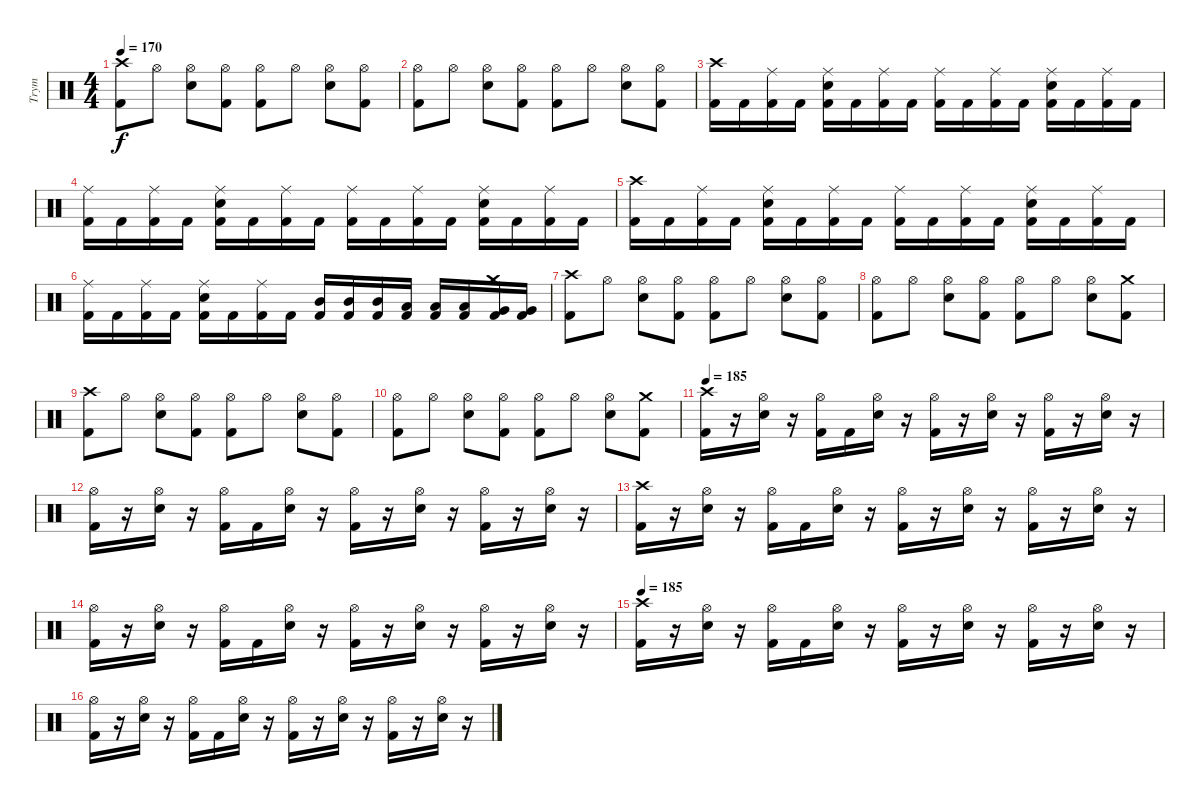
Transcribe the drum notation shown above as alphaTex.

\track ("Trym" "Trym") {instrument percussion}
\staff {score}
\articulation defaults
\ts (4 4)
\tempo 170
\clef neutral
\ks c
("Kick (hit) 2" "Crash high (hit)").8{dy f} "Hi-Hat (open)".8 ("Electric Snare (hit)" "Hi-Hat (open)").8 ("Kick (hit) 2" "Hi-Hat (open)").8 ("Kick (hit) 2" "Hi-Hat (open)").8 "Hi-Hat (open)".8 ("Electric Snare (hit)" "Hi-Hat (open)").8 ("Kick (hit) 2" "Hi-Hat (open)").8 |
("Kick (hit) 2" "Hi-Hat (open)").8 "Hi-Hat (open)".8 ("Electric Snare (hit)" "Hi-Hat (open)").8 ("Kick (hit) 2" "Hi-Hat (open)").8 ("Kick (hit) 2" "Hi-Hat (open)").8 "Hi-Hat (open)".8 ("Electric Snare (hit)" "Hi-Hat (open)").8 ("Kick (hit) 2" "Hi-Hat (open)").8 |
("Kick (hit) 2" "Crash high (hit)").16 "Kick (hit) 2".16 ("Kick (hit) 2" "Ride (middle)").16 "Kick (hit) 2".16 ("Kick (hit) 2" "Electric Snare (hit)" "Ride (middle)").16 "Kick (hit) 2".16 ("Kick (hit) 2" "Ride (middle)").16 "Kick (hit) 2".16 ("Kick (hit) 2" "Ride (middle)").16 "Kick (hit) 2".16 ("Kick (hit) 2" "Ride (middle)").16 "Kick (hit) 2".16 ("Kick (hit) 2" "Electric Snare (hit)" "Ride (middle)").16 "Kick (hit) 2".16 ("Kick (hit) 2" "Ride (middle)").16 "Kick (hit) 2".16 |
("Kick (hit) 2" "Ride (middle)").16 "Kick (hit) 2".16 ("Kick (hit) 2" "Ride (middle)").16 "Kick (hit) 2".16 ("Kick (hit) 2" "Electric Snare (hit)" "Ride (middle)").16 "Kick (hit) 2".16 ("Kick (hit) 2" "Ride (middle)").16 "Kick (hit) 2".16 ("Kick (hit) 2" "Ride (middle)").16 "Kick (hit) 2".16 ("Kick (hit) 2" "Ride (middle)").16 "Kick (hit) 2".16 ("Kick (hit) 2" "Electric Snare (hit)" "Ride (middle)").16 "Kick (hit) 2".16 ("Kick (hit) 2" "Ride (middle)").16 "Kick (hit) 2".16 |
("Kick (hit) 2" "Crash high (hit)").16 "Kick (hit) 2".16 ("Kick (hit) 2" "Ride (middle)").16 "Kick (hit) 2".16 ("Kick (hit) 2" "Electric Snare (hit)" "Ride (middle)").16 "Kick (hit) 2".16 ("Kick (hit) 2" "Ride (middle)").16 "Kick (hit) 2".16 ("Kick (hit) 2" "Ride (middle)").16 "Kick (hit) 2".16 ("Kick (hit) 2" "Ride (middle)").16 "Kick (hit) 2".16 ("Kick (hit) 2" "Electric Snare (hit)" "Ride (middle)").16 "Kick (hit) 2".16 ("Kick (hit) 2" "Ride (middle)").16 "Kick (hit) 2".16 |
("Kick (hit) 2" "Ride (middle)").16 "Kick (hit) 2".16 ("Kick (hit) 2" "Ride (middle)").16 "Kick (hit) 2".16 ("Kick (hit) 2" "Electric Snare (hit)" "Ride (middle)").16 "Kick (hit) 2".16 ("Kick (hit) 2" "Ride (middle)").16 "Kick (hit) 2".16 ("Kick (hit) 2" "Mid Tom (hit)").16 ("Kick (hit) 2" "Mid Tom (hit)").16 ("Kick (hit) 2" "Mid Tom (hit)").16 ("Kick (hit) 2" "Low Tom (hit)").16 ("Kick (hit) 2" "Low Tom (hit)").16 ("Kick (hit) 2" "Low Tom (hit)").16 ("Kick (hit) 2" "Crash medium (hit)" "Very Low Tom (hit)").16 ("Kick (hit) 2" "Very Low Tom (hit)").16 |
("Kick (hit) 2" "Crash high (hit)").8 "Hi-Hat (open)".8 ("Electric Snare (hit)" "Hi-Hat (open)").8 ("Kick (hit) 2" "Hi-Hat (open)").8 ("Kick (hit) 2" "Hi-Hat (open)").8 "Hi-Hat (open)".8 ("Electric Snare (hit)" "Hi-Hat (open)").8 ("Kick (hit) 2" "Hi-Hat (open)").8 |
("Kick (hit) 2" "Hi-Hat (open)").8 "Hi-Hat (open)".8 ("Electric Snare (hit)" "Hi-Hat (open)").8 ("Kick (hit) 2" "Hi-Hat (open)").8 ("Kick (hit) 2" "Hi-Hat (open)").8 "Hi-Hat (open)".8 ("Electric Snare (hit)" "Hi-Hat (open)").8 ("Kick (hit) 2" "Crash medium (hit)").8 |
("Kick (hit) 2" "Crash high (hit)").8 "Hi-Hat (open)".8 ("Electric Snare (hit)" "Hi-Hat (open)").8 ("Kick (hit) 2" "Hi-Hat (open)").8 ("Kick (hit) 2" "Hi-Hat (open)").8 "Hi-Hat (open)".8 ("Electric Snare (hit)" "Hi-Hat (open)").8 ("Kick (hit) 2" "Hi-Hat (open)").8 |
("Kick (hit) 2" "Hi-Hat (open)").8 "Hi-Hat (open)".8 ("Electric Snare (hit)" "Hi-Hat (open)").8 ("Kick (hit) 2" "Hi-Hat (open)").8 ("Kick (hit) 2" "Hi-Hat (open)").8 "Hi-Hat (open)".8 ("Electric Snare (hit)" "Hi-Hat (open)").8 ("Kick (hit) 2" "Crash medium (hit)").8 |
\tempo 185
("Kick (hit) 2" "Crash high (hit)").16 r.16 ("Electric Snare (hit)" "Hi-Hat (open)").16 r.16 ("Kick (hit) 2" "Hi-Hat (open)").16 "Kick (hit) 2".16 ("Electric Snare (hit)" "Hi-Hat (open)").16 r.16 ("Kick (hit) 2" "Hi-Hat (open)").16 r.16 ("Electric Snare (hit)" "Hi-Hat (open)").16 r.16 ("Kick (hit) 2" "Hi-Hat (open)").16 r.16 ("Electric Snare (hit)" "Hi-Hat (open)").16 r.16 |
("Kick (hit) 2" "Hi-Hat (open)").16 r.16 ("Electric Snare (hit)" "Hi-Hat (open)").16 r.16 ("Kick (hit) 2" "Hi-Hat (open)").16 "Kick (hit) 2".16 ("Electric Snare (hit)" "Hi-Hat (open)").16 r.16 ("Kick (hit) 2" "Hi-Hat (open)").16 r.16 ("Electric Snare (hit)" "Hi-Hat (open)").16 r.16 ("Kick (hit) 2" "Hi-Hat (open)").16 r.16 ("Electric Snare (hit)" "Hi-Hat (open)").16 r.16 |
("Kick (hit) 2" "Crash high (hit)").16 r.16 ("Electric Snare (hit)" "Hi-Hat (open)").16 r.16 ("Kick (hit) 2" "Hi-Hat (open)").16 "Kick (hit) 2".16 ("Electric Snare (hit)" "Hi-Hat (open)").16 r.16 ("Kick (hit) 2" "Hi-Hat (open)").16 r.16 ("Electric Snare (hit)" "Hi-Hat (open)").16 r.16 ("Kick (hit) 2" "Hi-Hat (open)").16 r.16 ("Electric Snare (hit)" "Hi-Hat (open)").16 r.16 |
("Kick (hit) 2" "Hi-Hat (open)").16 r.16 ("Electric Snare (hit)" "Hi-Hat (open)").16 r.16 ("Kick (hit) 2" "Hi-Hat (open)").16 "Kick (hit) 2".16 ("Electric Snare (hit)" "Hi-Hat (open)").16 r.16 ("Kick (hit) 2" "Hi-Hat (open)").16 r.16 ("Electric Snare (hit)" "Hi-Hat (open)").16 r.16 ("Kick (hit) 2" "Hi-Hat (open)").16 r.16 ("Electric Snare (hit)" "Hi-Hat (open)").16 r.16 |
\tempo 185
("Kick (hit) 2" "Crash high (hit)").16 r.16 ("Electric Snare (hit)" "Hi-Hat (open)").16 r.16 ("Kick (hit) 2" "Hi-Hat (open)").16 "Kick (hit) 2".16 ("Electric Snare (hit)" "Hi-Hat (open)").16 r.16 ("Kick (hit) 2" "Hi-Hat (open)").16 r.16 ("Electric Snare (hit)" "Hi-Hat (open)").16 r.16 ("Kick (hit) 2" "Hi-Hat (open)").16 r.16 ("Electric Snare (hit)" "Hi-Hat (open)").16 r.16 |
("Kick (hit) 2" "Hi-Hat (open)").16 r.16 ("Electric Snare (hit)" "Hi-Hat (open)").16 r.16 ("Kick (hit) 2" "Hi-Hat (open)").16 "Kick (hit) 2".16 ("Electric Snare (hit)" "Hi-Hat (open)").16 r.16 ("Kick (hit) 2" "Hi-Hat (open)").16 r.16 ("Electric Snare (hit)" "Hi-Hat (open)").16 r.16 ("Kick (hit) 2" "Hi-Hat (open)").16 r.16 ("Electric Snare (hit)" "Hi-Hat (open)").16 r.16
